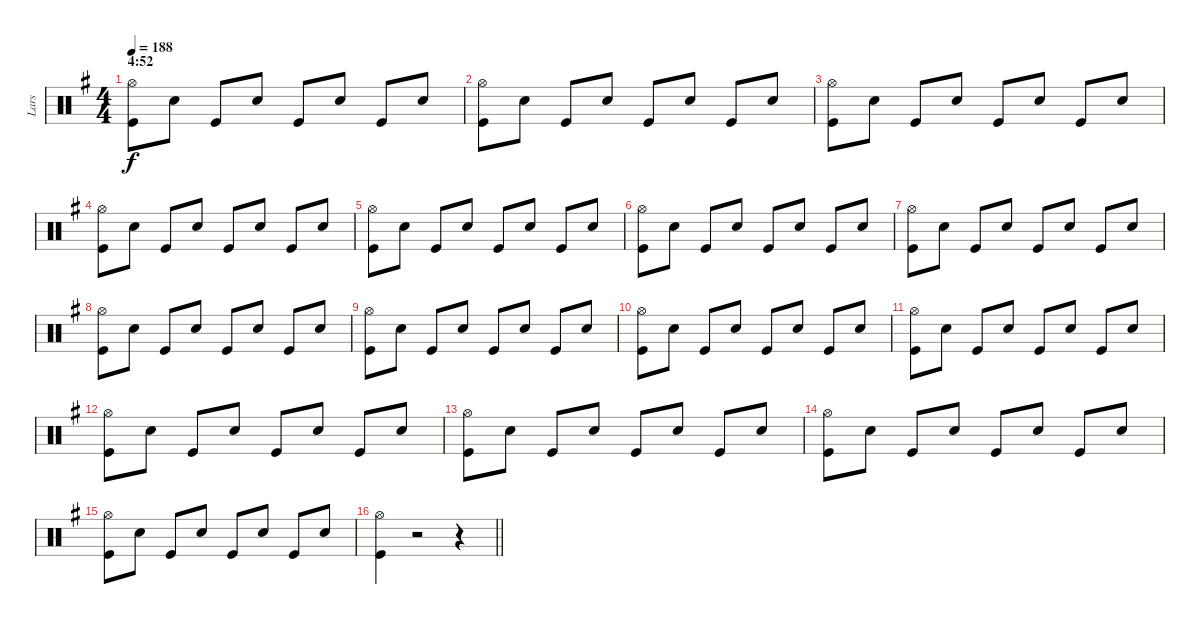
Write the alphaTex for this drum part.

\track ("Lars" "Lars") {instrument percussion}
\staff {score}
\articulation defaults
\ts (4 4)
\section ("" "4:52")
\tempo 188
\clef neutral
\ks eminor
("Hi-Hat (open)" "Kick (hit)").8{dy f} "Snare (hit) 2".8 "Kick (hit)".8 "Snare (hit) 2".8 "Kick (hit)".8 "Snare (hit) 2".8 "Kick (hit)".8 "Snare (hit) 2".8 |
("Hi-Hat (open)" "Kick (hit)").8 "Snare (hit) 2".8 "Kick (hit)".8 "Snare (hit) 2".8 "Kick (hit)".8 "Snare (hit) 2".8 "Kick (hit)".8 "Snare (hit) 2".8 |
("Hi-Hat (open)" "Kick (hit)").8 "Snare (hit) 2".8 "Kick (hit)".8 "Snare (hit) 2".8 "Kick (hit)".8 "Snare (hit) 2".8 "Kick (hit)".8 "Snare (hit) 2".8 |
("Hi-Hat (open)" "Kick (hit)").8 "Snare (hit) 2".8 "Kick (hit)".8 "Snare (hit) 2".8 "Kick (hit)".8 "Snare (hit) 2".8 "Kick (hit)".8 "Snare (hit) 2".8 |
("Hi-Hat (open)" "Kick (hit)").8 "Snare (hit) 2".8 "Kick (hit)".8 "Snare (hit) 2".8 "Kick (hit)".8 "Snare (hit) 2".8 "Kick (hit)".8 "Snare (hit) 2".8 |
("Hi-Hat (open)" "Kick (hit)").8 "Snare (hit) 2".8 "Kick (hit)".8 "Snare (hit) 2".8 "Kick (hit)".8 "Snare (hit) 2".8 "Kick (hit)".8 "Snare (hit) 2".8 |
("Hi-Hat (open)" "Kick (hit)").8 "Snare (hit) 2".8 "Kick (hit)".8 "Snare (hit) 2".8 "Kick (hit)".8 "Snare (hit) 2".8 "Kick (hit)".8 "Snare (hit) 2".8 |
("Hi-Hat (open)" "Kick (hit)").8 "Snare (hit) 2".8 "Kick (hit)".8 "Snare (hit) 2".8 "Kick (hit)".8 "Snare (hit) 2".8 "Kick (hit)".8 "Snare (hit) 2".8 |
("Hi-Hat (open)" "Kick (hit)").8 "Snare (hit) 2".8 "Kick (hit)".8 "Snare (hit) 2".8 "Kick (hit)".8 "Snare (hit) 2".8 "Kick (hit)".8 "Snare (hit) 2".8 |
("Hi-Hat (open)" "Kick (hit)").8 "Snare (hit) 2".8 "Kick (hit)".8 "Snare (hit) 2".8 "Kick (hit)".8 "Snare (hit) 2".8 "Kick (hit)".8 "Snare (hit) 2".8 |
("Hi-Hat (open)" "Kick (hit)").8 "Snare (hit) 2".8 "Kick (hit)".8 "Snare (hit) 2".8 "Kick (hit)".8 "Snare (hit) 2".8 "Kick (hit)".8 "Snare (hit) 2".8 |
("Hi-Hat (open)" "Kick (hit)").8 "Snare (hit) 2".8 "Kick (hit)".8 "Snare (hit) 2".8 "Kick (hit)".8 "Snare (hit) 2".8 "Kick (hit)".8 "Snare (hit) 2".8 |
("Hi-Hat (open)" "Kick (hit)").8 "Snare (hit) 2".8 "Kick (hit)".8 "Snare (hit) 2".8 "Kick (hit)".8 "Snare (hit) 2".8 "Kick (hit)".8 "Snare (hit) 2".8 |
("Hi-Hat (open)" "Kick (hit)").8 "Snare (hit) 2".8 "Kick (hit)".8 "Snare (hit) 2".8 "Kick (hit)".8 "Snare (hit) 2".8 "Kick (hit)".8 "Snare (hit) 2".8 |
("Hi-Hat (open)" "Kick (hit)").8 "Snare (hit) 2".8 "Kick (hit)".8 "Snare (hit) 2".8 "Kick (hit)".8 "Snare (hit) 2".8 "Kick (hit)".8 "Snare (hit) 2".8 |
\barLineRight lightlight
("Kick (hit)" "Hi-Hat (open)").4 r.2 r.4
